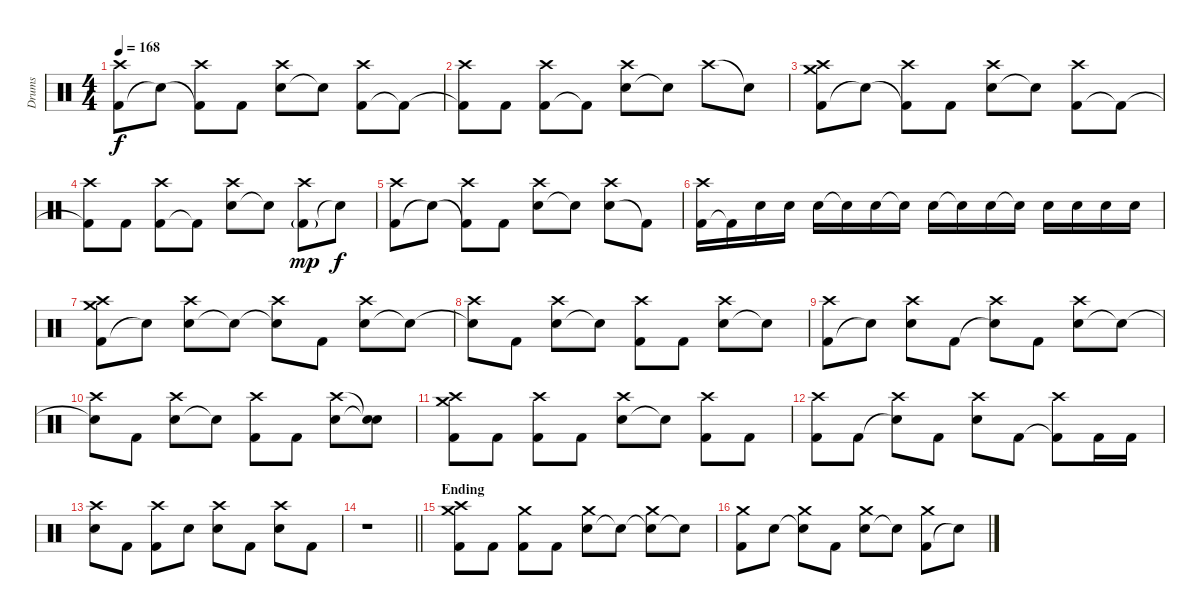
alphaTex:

\track ("Drums" "Drums") {instrument percussion}
\staff {score}
\articulation defaults
\ts (4 4)
\tempo 168
\clef neutral
\ks c
("Kick (hit) 2" "Crash high (hit)").8{dy f} "Snare (hit)"{t}.8 ("Kick (hit) 2"{t} "Crash high (hit)").8 "Kick (hit) 2".8 ("Electric Snare (hit)" "Crash high (hit)").8 "Snare (hit)"{t}.8 ("Kick (hit) 2" "Crash high (hit)").8 "Kick (hit) 2"{t}.8 |
("Kick (hit) 2"{t} "Crash high (hit)").8 "Kick (hit) 2".8 ("Kick (hit) 2" "Crash high (hit)").8 "Kick (hit) 2"{t}.8 ("Electric Snare (hit)" "Crash high (hit)").8 "Snare (hit)"{t}.8 "Crash high (hit)".8 "Snare (hit)"{t}.8 |
("Kick (hit) 2" "Crash medium (hit)" "Crash high (hit)").8 "Snare (hit)"{t}.8 ("Kick (hit) 2"{t} "Crash high (hit)").8 "Kick (hit) 2".8 ("Electric Snare (hit)" "Crash high (hit)").8 "Snare (hit)"{t}.8 ("Kick (hit) 2" "Crash high (hit)").8 "Kick (hit) 2"{t}.8 |
("Kick (hit) 2"{t} "Crash high (hit)").8 "Kick (hit) 2".8 ("Kick (hit) 2" "Crash high (hit)").8 "Kick (hit) 2"{t}.8 ("Electric Snare (hit)" "Crash high (hit)").8 "Snare (hit)"{t}.8 ("Kick (hit) 2"{g} "Crash high (hit)").8{dy mp} "Snare (hit)"{t}.8{dy f} |
("Kick (hit) 2" "Crash high (hit)").8 "Snare (hit)"{t}.8 ("Kick (hit) 2"{t} "Crash high (hit)").8 "Kick (hit) 2".8 ("Electric Snare (hit)" "Crash high (hit)").8 "Snare (hit)"{t}.8 ("Electric Snare (hit)" "Crash high (hit)").8 "Kick (hit) 2"{t}.8 |
("Kick (hit) 2" "Crash high (hit)").16 "Kick (hit) 2"{t}.16 "Electric Snare (hit)".16 "Electric Snare (hit)".16 "Electric Snare (hit)".16 "Snare (hit)"{t}.16 "Electric Snare (hit)".16 "Snare (hit)"{t}.16 "Electric Snare (hit)".16 "Snare (hit)"{t}.16 "Electric Snare (hit)".16 "Snare (hit)"{t}.16 "Electric Snare (hit)".16 "Electric Snare (hit)".16 "Electric Snare (hit)".16 "Electric Snare (hit)".16 |
("Kick (hit) 2" "Crash medium (hit)" "Crash high (hit)").8 "Snare (hit)"{t}.8 ("Electric Snare (hit)" "Crash high (hit)").8 "Snare (hit)"{t}.8 ("Snare (hit)"{t} "Crash high (hit)").8 "Kick (hit) 2".8 ("Electric Snare (hit)" "Crash high (hit)").8 "Snare (hit)"{t}.8 |
("Snare (hit)"{t} "Crash high (hit)").8 "Kick (hit) 2".8 ("Electric Snare (hit)" "Crash high (hit)").8 "Snare (hit)"{t}.8 ("Kick (hit) 2" "Crash high (hit)").8 "Kick (hit) 2".8 ("Electric Snare (hit)" "Crash high (hit)").8 "Snare (hit)"{t}.8 |
("Kick (hit) 2" "Crash high (hit)").8 "Snare (hit)"{t}.8 ("Electric Snare (hit)" "Crash high (hit)").8 "Kick (hit) 2".8 ("Snare (hit)"{t} "Crash high (hit)").8 "Kick (hit) 2".8 ("Electric Snare (hit)" "Crash high (hit)").8 "Snare (hit)"{t}.8 |
("Snare (hit)"{t} "Crash high (hit)").8 "Kick (hit) 2".8 ("Electric Snare (hit)" "Crash high (hit)").8 "Snare (hit)"{t}.8 ("Kick (hit) 2" "Crash high (hit)").8 "Kick (hit) 2".8 ("Electric Snare (hit)" "Crash high (hit)").8 ("Snare (hit)"{t} "Snare (hit)"{t}).8 |
("Kick (hit) 2" "Crash medium (hit)" "Crash high (hit)").8 "Kick (hit) 2".8 ("Kick (hit) 2" "Crash high (hit)").8 "Kick (hit) 2".8 ("Electric Snare (hit)" "Crash high (hit)").8 "Snare (hit)"{t}.8 ("Kick (hit) 2" "Crash high (hit)").8 "Kick (hit) 2".8 |
("Kick (hit) 2" "Crash high (hit)").8 "Kick (hit) 2".8 ("Snare (hit)"{t} "Crash high (hit)").8 "Kick (hit) 2".8 ("Electric Snare (hit)" "Crash high (hit)").8 "Kick (hit) 2".8 ("Kick (hit) 2"{t} "Crash high (hit)").8 "Kick (hit) 2".16 "Kick (hit) 2".16 |
("Electric Snare (hit)" "Crash high (hit)").8 "Kick (hit) 2".8 ("Kick (hit) 2" "Crash high (hit)").8 "Electric Snare (hit)".8 ("Electric Snare (hit)" "Crash high (hit)").8 "Kick (hit) 2".8 ("Electric Snare (hit)" "Crash high (hit)").8 "Kick (hit) 2".8 |
\barLineRight lightlight
r.1 |
\section ("" "Ending")
("Kick (hit) 2" "Crash medium (hit)" "Crash high (hit)").8 "Kick (hit) 2".8 ("Kick (hit) 2" "Crash medium (hit)").8 "Kick (hit) 2".8 ("Electric Snare (hit)" "Crash medium (hit)").8 "Snare (hit)"{t}.8 ("Snare (hit)"{t} "Crash medium (hit)").8 "Snare (hit)"{t}.8 |
("Kick (hit) 2" "Crash medium (hit)").8 "Electric Snare (hit)".8 ("Snare (hit)"{t} "Crash medium (hit)").8 "Kick (hit) 2".8 ("Electric Snare (hit)" "Crash medium (hit)").8 "Snare (hit)"{t}.8 ("Kick (hit) 2" "Crash medium (hit)").8 "Snare (hit)"{t}.8
